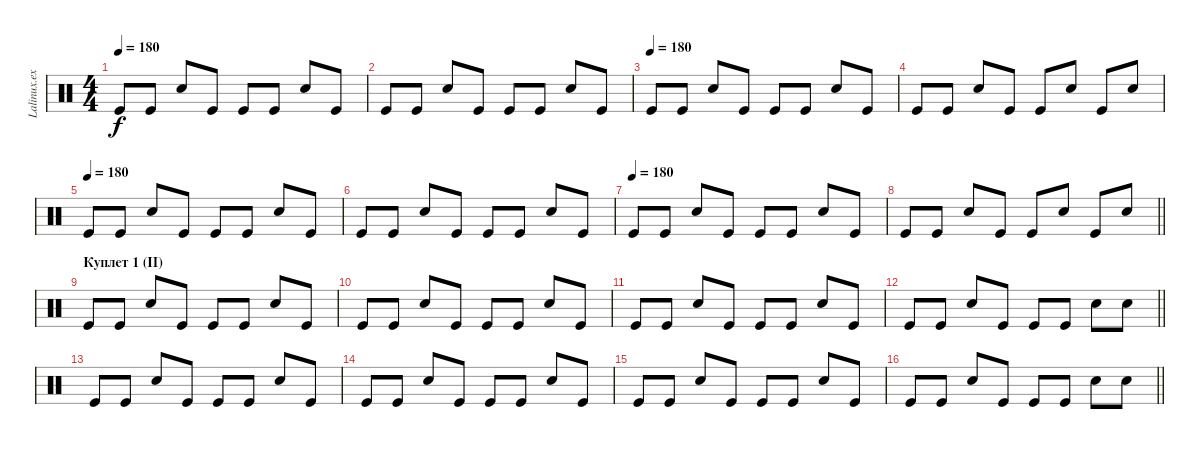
\track ("Lalinux.exe" "Lalinux.ex") {instrument percussion}
\staff {score}
\articulation defaults
\ts (4 4)
\section ("" "")
\tempo 180
\clef neutral
\ks c "Kick (hit)".8{dy f} "Kick (hit)".8 "Electric Snare (hit)".8 "Kick (hit)".8 "Kick (hit)".8 "Kick (hit)".8 "Electric Snare (hit)".8 "Kick (hit)".8
|
"Kick (hit)".8 "Kick (hit)".8 "Electric Snare (hit)".8 "Kick (hit)".8 "Kick (hit)".8 "Kick (hit)".8 "Electric Snare (hit)".8 "Kick (hit)".8 |
\tempo (180)
"Kick (hit)".8 "Kick (hit)".8 "Electric Snare (hit)".8 "Kick (hit)".8 "Kick (hit)".8 "Kick (hit)".8 "Electric Snare (hit)".8 "Kick (hit)".8 |
"Kick (hit)".8 "Kick (hit)".8 "Electric Snare (hit)".8 "Kick (hit)".8 "Kick (hit)".8 "Electric Snare (hit)".8 "Kick (hit)".8 "Electric Snare (hit)".8 |
\tempo (180)
"Kick (hit)".8 "Kick (hit)".8 "Electric Snare (hit)".8 "Kick (hit)".8 "Kick (hit)".8 "Kick (hit)".8 "Electric Snare (hit)".8 "Kick (hit)".8 |
"Kick (hit)".8 "Kick (hit)".8 "Electric Snare (hit)".8 "Kick (hit)".8 "Kick (hit)".8 "Kick (hit)".8 "Electric Snare (hit)".8 "Kick (hit)".8 |
\tempo (180)
"Kick (hit)".8 "Kick (hit)".8 "Electric Snare (hit)".8 "Kick (hit)".8 "Kick (hit)".8 "Kick (hit)".8 "Electric Snare (hit)".8 "Kick (hit)".8 |
\barLineRight lightlight "Kick (hit)".8 "Kick (hit)".8 "Electric Snare (hit)".8 "Kick (hit)".8 "Kick (hit)".8 "Electric Snare (hit)".8 "Kick (hit)".8 "Electric Snare (hit)".8
|
\section ("" "Куплет 1 (II)")
"Kick (hit)".8 "Kick (hit)".8 "Electric Snare (hit)".8 "Kick (hit)".8 "Kick (hit)".8 "Kick (hit)".8 "Electric Snare (hit)".8 "Kick (hit)".8 |
"Kick (hit)".8 "Kick (hit)".8 "Electric Snare (hit)".8 "Kick (hit)".8 "Kick (hit)".8 "Kick (hit)".8 "Electric Snare (hit)".8 "Kick (hit)".8 |
"Kick (hit)".8 "Kick (hit)".8 "Electric Snare (hit)".8 "Kick (hit)".8 "Kick (hit)".8 "Kick (hit)".8 "Electric Snare (hit)".8 "Kick (hit)".8 |
\barLineRight lightlight "Kick (hit)".8 "Kick (hit)".8 "Electric Snare (hit)".8 "Kick (hit)".8 "Kick (hit)".8 "Kick (hit)".8 "Electric Snare (hit)".8 "Electric Snare (hit)".8
|
"Kick (hit)".8 "Kick (hit)".8 "Electric Snare (hit)".8 "Kick (hit)".8 "Kick (hit)".8 "Kick (hit)".8 "Electric Snare (hit)".8 "Kick (hit)".8 |
"Kick (hit)".8 "Kick (hit)".8 "Electric Snare (hit)".8 "Kick (hit)".8 "Kick (hit)".8 "Kick (hit)".8 "Electric Snare (hit)".8 "Kick (hit)".8 |
"Kick (hit)".8 "Kick (hit)".8 "Electric Snare (hit)".8 "Kick (hit)".8 "Kick (hit)".8 "Kick (hit)".8 "Electric Snare (hit)".8 "Kick (hit)".8 |
\barLineRight lightlight "Kick (hit)".8 "Kick (hit)".8 "Electric Snare (hit)".8 "Kick (hit)".8 "Kick (hit)".8 "Kick (hit)".8 "Electric Snare (hit)".8 "Electric Snare (hit)".8
